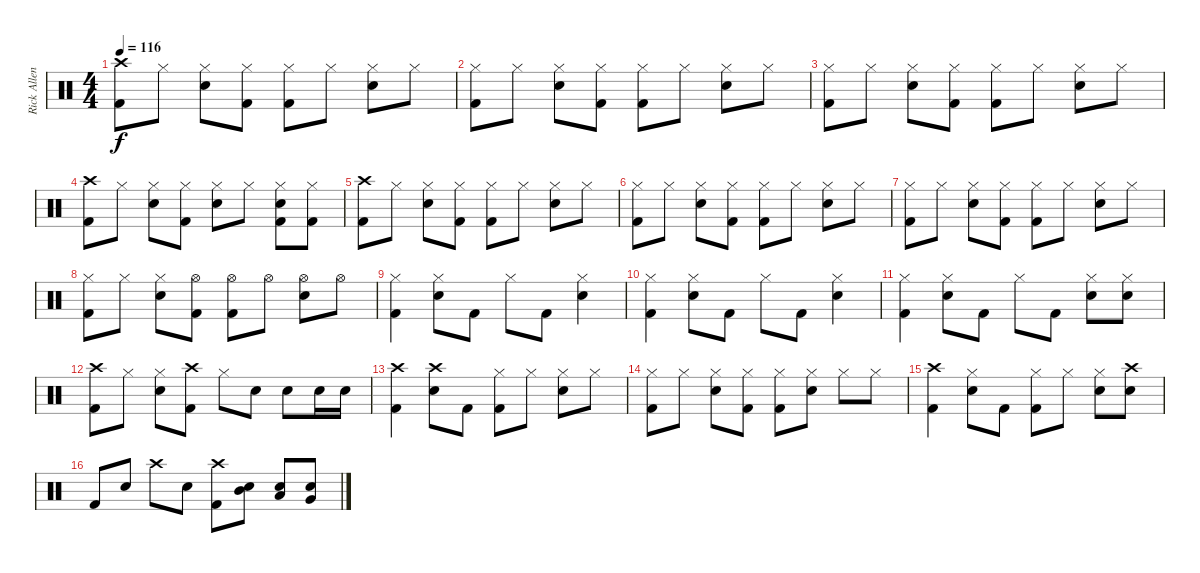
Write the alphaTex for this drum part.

\track ("Rick Allen" "Rick Allen") {instrument percussion}
\staff {score}
\articulation defaults
\ts (4 4)
\tempo 116
\clef neutral
\ks c
("Crash high (hit)" "Kick (hit) 2").8{dy f} "Hi-Hat (closed)".8 ("Hi-Hat (closed)" "Electric Snare (hit)").8 ("Hi-Hat (closed)" "Kick (hit) 2").8 ("Hi-Hat (closed)" "Kick (hit) 2").8 "Hi-Hat (closed)".8 ("Hi-Hat (closed)" "Electric Snare (hit)").8 "Hi-Hat (closed)".8 |
("Hi-Hat (closed)" "Kick (hit) 2").8 "Hi-Hat (closed)".8 ("Hi-Hat (closed)" "Electric Snare (hit)").8 ("Hi-Hat (closed)" "Kick (hit) 2").8 ("Hi-Hat (closed)" "Kick (hit) 2").8 "Hi-Hat (closed)".8 ("Hi-Hat (closed)" "Electric Snare (hit)").8 "Hi-Hat (closed)".8 |
("Hi-Hat (closed)" "Kick (hit) 2").8 "Hi-Hat (closed)".8 ("Hi-Hat (closed)" "Electric Snare (hit)").8 ("Hi-Hat (closed)" "Kick (hit) 2").8 ("Hi-Hat (closed)" "Kick (hit) 2").8 "Hi-Hat (closed)".8 ("Hi-Hat (closed)" "Electric Snare (hit)").8 "Hi-Hat (closed)".8 |
("Crash high (hit)" "Kick (hit) 2").8 "Hi-Hat (closed)".8 ("Hi-Hat (closed)" "Electric Snare (hit)").8 ("Hi-Hat (closed)" "Kick (hit) 2").8 ("Hi-Hat (closed)" "Electric Snare (hit)").8 "Hi-Hat (closed)".8 ("Hi-Hat (closed)" "Electric Snare (hit)" "Kick (hit) 2").8 ("Hi-Hat (closed)" "Kick (hit) 2").8 |
("Crash high (hit)" "Kick (hit) 2").8 "Hi-Hat (closed)".8 ("Hi-Hat (closed)" "Electric Snare (hit)").8 ("Hi-Hat (closed)" "Kick (hit) 2").8 ("Hi-Hat (closed)" "Kick (hit) 2").8 "Hi-Hat (closed)".8 ("Hi-Hat (closed)" "Electric Snare (hit)").8 "Hi-Hat (closed)".8 |
("Hi-Hat (closed)" "Kick (hit) 2").8 "Hi-Hat (closed)".8 ("Hi-Hat (closed)" "Electric Snare (hit)").8 ("Hi-Hat (closed)" "Kick (hit) 2").8 ("Hi-Hat (closed)" "Kick (hit) 2").8 "Hi-Hat (closed)".8 ("Hi-Hat (closed)" "Electric Snare (hit)").8 "Hi-Hat (closed)".8 |
("Hi-Hat (closed)" "Kick (hit) 2").8 "Hi-Hat (closed)".8 ("Hi-Hat (closed)" "Electric Snare (hit)").8 ("Hi-Hat (closed)" "Kick (hit) 2").8 ("Hi-Hat (closed)" "Kick (hit) 2").8 "Hi-Hat (closed)".8 ("Hi-Hat (closed)" "Electric Snare (hit)").8 "Hi-Hat (closed)".8 |
("Hi-Hat (closed)" "Kick (hit) 2").8 "Hi-Hat (closed)".8 ("Hi-Hat (closed)" "Electric Snare (hit)").8 ("Hi-Hat (open)" "Kick (hit) 2").8 ("Hi-Hat (open)" "Kick (hit) 2").8 "Hi-Hat (open)".8 ("Hi-Hat (open)" "Electric Snare (hit)").8 "Hi-Hat (open)".8 |
("Hi-Hat (closed)" "Kick (hit) 2").4 ("Hi-Hat (closed)" "Electric Snare (hit)").8 "Kick (hit) 2".8 "Hi-Hat (closed)".8 "Kick (hit) 2".8 ("Hi-Hat (closed)" "Electric Snare (hit)").4 |
("Hi-Hat (closed)" "Kick (hit) 2").4 ("Hi-Hat (closed)" "Electric Snare (hit)").8 "Kick (hit) 2".8 "Hi-Hat (closed)".8 "Kick (hit) 2".8 ("Hi-Hat (closed)" "Electric Snare (hit)").4 |
("Hi-Hat (closed)" "Kick (hit) 2").4 ("Hi-Hat (closed)" "Electric Snare (hit)").8 "Kick (hit) 2".8 "Hi-Hat (closed)".8 "Kick (hit) 2".8 ("Hi-Hat (closed)" "Electric Snare (hit)").8 ("Hi-Hat (closed)" "Electric Snare (hit)").8 |
("Crash high (hit)" "Kick (hit) 2").8 "Hi-Hat (closed)".8 ("Hi-Hat (closed)" "Electric Snare (hit)").8 ("Crash high (hit)" "Kick (hit) 2").8 "Hi-Hat (closed)".8 "Electric Snare (hit)".8 "Electric Snare (hit)".8 "Electric Snare (hit)".16 "Electric Snare (hit)".16 |
("Crash high (hit)" "Kick (hit) 2").4 ("Crash high (hit)" "Electric Snare (hit)").8 "Kick (hit) 2".8 ("Hi-Hat (closed)" "Kick (hit) 2").8 "Hi-Hat (closed)".8 ("Hi-Hat (closed)" "Electric Snare (hit)").8 "Hi-Hat (closed)".8 |
("Hi-Hat (closed)" "Kick (hit) 2").8 "Hi-Hat (closed)".8 ("Hi-Hat (closed)" "Electric Snare (hit)").8 ("Hi-Hat (closed)" "Kick (hit) 2").8 ("Hi-Hat (closed)" "Kick (hit) 2").8 ("Hi-Hat (closed)" "Electric Snare (hit)").8 "Hi-Hat (closed)".8 "Hi-Hat (closed)".8 |
("Crash high (hit)" "Kick (hit) 2").4 ("Hi-Hat (closed)" "Electric Snare (hit)").8 "Kick (hit) 2".8 ("Hi-Hat (closed)" "Kick (hit) 2").8 "Hi-Hat (closed)".8 ("Hi-Hat (closed)" "Electric Snare (hit)").8 ("Crash high (hit)" "Electric Snare (hit)").8 |
"Kick (hit) 2".8 "Electric Snare (hit)".8 "Crash high (hit)".8 "Electric Snare (hit)".8 ("Crash high (hit)" "Kick (hit) 2").8 ("Mid Tom (hit)" "Electric Snare (hit)").8 ("Low Tom (hit)" "Electric Snare (hit)").8 ("Electric Snare (hit)" "Very Low Tom (hit)").8
